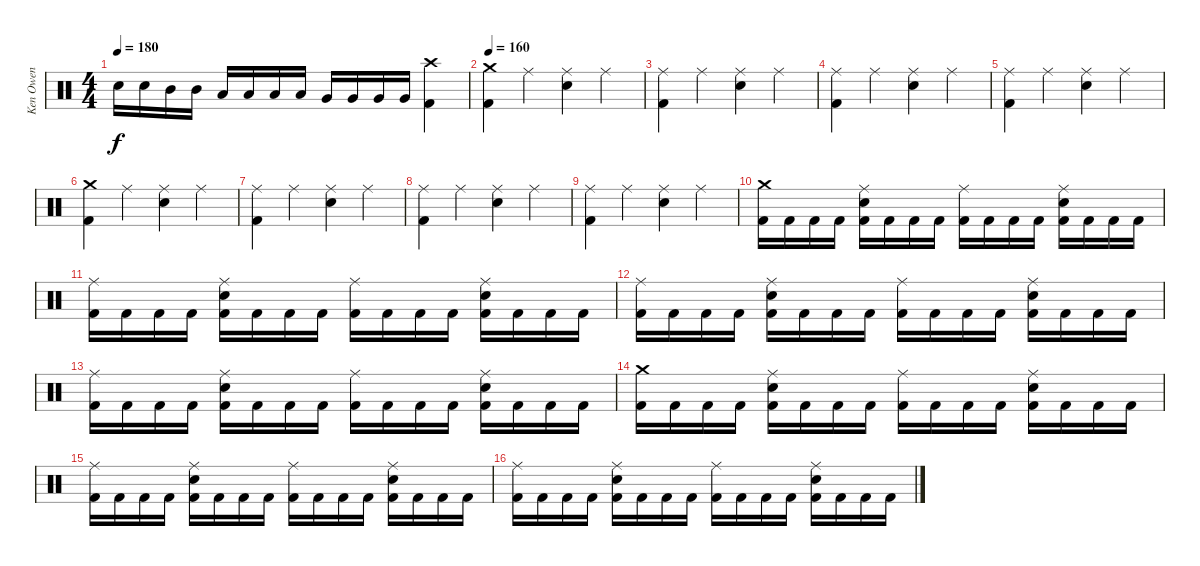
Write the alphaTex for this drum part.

\track ("Ken Owen" "Ken Owen") {instrument percussion}
\staff {score}
\articulation defaults
\ts (4 4)
\tempo 180
\clef neutral
\ks c "Snare (hit) 2".16{dy f} "Snare (hit) 2".16 "Mid Tom (hit)".16 "Mid Tom (hit)".16 "Low Tom (hit)".16 "Low Tom (hit)".16 "Low Tom (hit)".16 "Low Tom (hit)".16 "Very Low Tom (hit)".16 "Very Low Tom (hit)".16 "Very Low Tom (hit)".16 "Very Low Tom (hit)".16
("Crash high (hit)" "Kick (hit) 2").4 |
\tempo 160
("Crash medium (hit)" "Kick (hit) 2").4 "Ride (middle)".4 ("Ride (middle)" "Snare (hit) 2").4 "Ride (middle)".4 |
("Ride (middle)" "Kick (hit) 2").4 "Ride (middle)".4 ("Ride (middle)" "Snare (hit) 2").4 "Ride (middle)".4 |
("Ride (middle)" "Kick (hit) 2").4 "Ride (middle)".4 ("Ride (middle)" "Snare (hit) 2").4 "Ride (middle)".4 |
("Ride (middle)" "Kick (hit) 2").4 "Ride (middle)".4 ("Ride (middle)" "Snare (hit) 2").4 "Ride (middle)".4 |
("Crash medium (hit)" "Kick (hit) 2").4 "Ride (middle)".4 ("Ride (middle)" "Snare (hit) 2").4 "Ride (middle)".4 |
("Ride (middle)" "Kick (hit) 2").4 "Ride (middle)".4 ("Ride (middle)" "Snare (hit) 2").4 "Ride (middle)".4 |
("Ride (middle)" "Kick (hit) 2").4 "Ride (middle)".4 ("Ride (middle)" "Snare (hit) 2").4 "Ride (middle)".4 |
("Ride (middle)" "Kick (hit) 2").4 "Ride (middle)".4 ("Ride (middle)" "Snare (hit) 2").4 "Ride (middle)".4 |
("Crash medium (hit)" "Kick (hit) 2").16 "Kick (hit) 2".16 "Kick (hit) 2".16 "Kick (hit) 2".16 ("Ride (middle)" "Snare (hit) 2" "Kick (hit) 2").16 "Kick (hit) 2".16 "Kick (hit) 2".16 "Kick (hit) 2".16 ("Ride (middle)" "Kick (hit) 2").16 "Kick (hit) 2".16 "Kick (hit) 2".16 "Kick (hit) 2".16 ("Ride (middle)" "Snare (hit) 2" "Kick (hit) 2").16 "Kick (hit) 2".16 "Kick (hit) 2".16 "Kick (hit) 2".16 |
("Ride (middle)" "Kick (hit) 2").16 "Kick (hit) 2".16 "Kick (hit) 2".16 "Kick (hit) 2".16 ("Ride (middle)" "Snare (hit) 2" "Kick (hit) 2").16 "Kick (hit) 2".16 "Kick (hit) 2".16 "Kick (hit) 2".16 ("Ride (middle)" "Kick (hit) 2").16 "Kick (hit) 2".16 "Kick (hit) 2".16 "Kick (hit) 2".16 ("Ride (middle)" "Snare (hit) 2" "Kick (hit) 2").16 "Kick (hit) 2".16 "Kick (hit) 2".16 "Kick (hit) 2".16 |
("Ride (middle)" "Kick (hit) 2").16 "Kick (hit) 2".16 "Kick (hit) 2".16 "Kick (hit) 2".16 ("Ride (middle)" "Snare (hit) 2" "Kick (hit) 2").16 "Kick (hit) 2".16 "Kick (hit) 2".16 "Kick (hit) 2".16 ("Ride (middle)" "Kick (hit) 2").16 "Kick (hit) 2".16 "Kick (hit) 2".16 "Kick (hit) 2".16 ("Ride (middle)" "Snare (hit) 2" "Kick (hit) 2").16 "Kick (hit) 2".16 "Kick (hit) 2".16 "Kick (hit) 2".16 |
("Ride (middle)" "Kick (hit) 2").16 "Kick (hit) 2".16 "Kick (hit) 2".16 "Kick (hit) 2".16 ("Ride (middle)" "Snare (hit) 2" "Kick (hit) 2").16 "Kick (hit) 2".16 "Kick (hit) 2".16 "Kick (hit) 2".16 ("Ride (middle)" "Kick (hit) 2").16 "Kick (hit) 2".16 "Kick (hit) 2".16 "Kick (hit) 2".16 ("Ride (middle)" "Snare (hit) 2" "Kick (hit) 2").16 "Kick (hit) 2".16 "Kick (hit) 2".16 "Kick (hit) 2".16 |
("Crash medium (hit)" "Kick (hit) 2").16 "Kick (hit) 2".16 "Kick (hit) 2".16 "Kick (hit) 2".16 ("Ride (middle)" "Snare (hit) 2" "Kick (hit) 2").16 "Kick (hit) 2".16 "Kick (hit) 2".16 "Kick (hit) 2".16 ("Ride (middle)" "Kick (hit) 2").16 "Kick (hit) 2".16 "Kick (hit) 2".16 "Kick (hit) 2".16 ("Ride (middle)" "Snare (hit) 2" "Kick (hit) 2").16 "Kick (hit) 2".16 "Kick (hit) 2".16 "Kick (hit) 2".16 |
("Ride (middle)" "Kick (hit) 2").16 "Kick (hit) 2".16 "Kick (hit) 2".16 "Kick (hit) 2".16 ("Ride (middle)" "Snare (hit) 2" "Kick (hit) 2").16 "Kick (hit) 2".16 "Kick (hit) 2".16 "Kick (hit) 2".16 ("Ride (middle)" "Kick (hit) 2").16 "Kick (hit) 2".16 "Kick (hit) 2".16 "Kick (hit) 2".16 ("Ride (middle)" "Snare (hit) 2" "Kick (hit) 2").16 "Kick (hit) 2".16 "Kick (hit) 2".16 "Kick (hit) 2".16 |
("Ride (middle)" "Kick (hit) 2").16 "Kick (hit) 2".16 "Kick (hit) 2".16 "Kick (hit) 2".16 ("Ride (middle)" "Snare (hit) 2" "Kick (hit) 2").16 "Kick (hit) 2".16 "Kick (hit) 2".16 "Kick (hit) 2".16 ("Ride (middle)" "Kick (hit) 2").16 "Kick (hit) 2".16 "Kick (hit) 2".16 "Kick (hit) 2".16 ("Ride (middle)" "Snare (hit) 2" "Kick (hit) 2").16 "Kick (hit) 2".16 "Kick (hit) 2".16 "Kick (hit) 2".16
